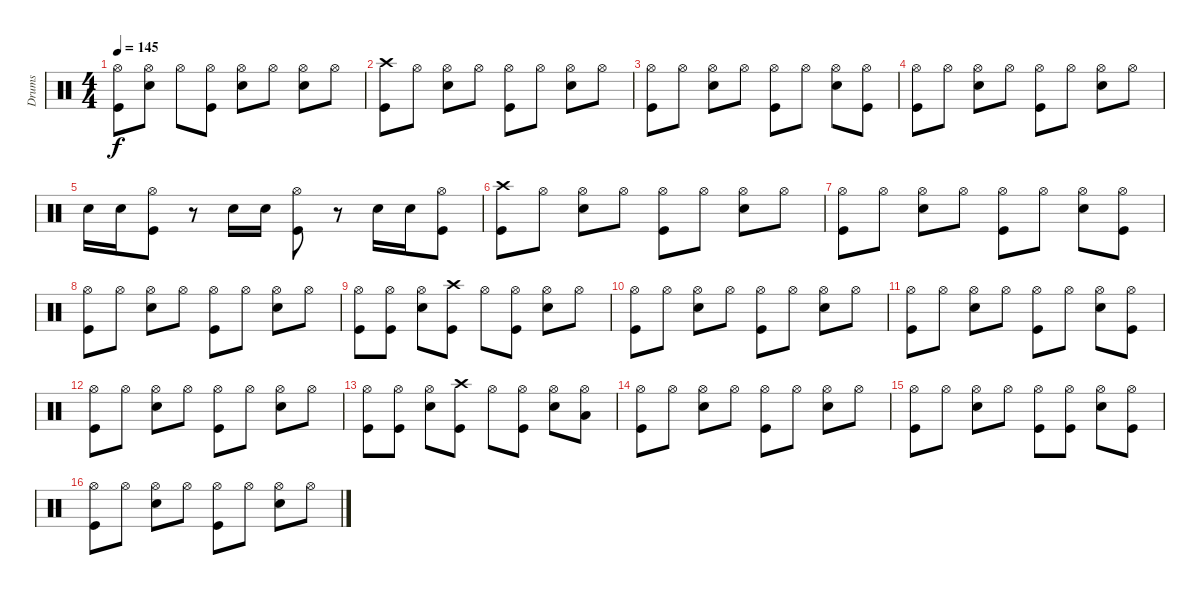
\track ("Drums" "Drums") {instrument percussion}
\staff {score}
\articulation defaults
\ts (4 4)
\tempo 145
\clef neutral
\ks c
("Hi-Hat (open)" "Kick (hit)").8{dy f} ("Hi-Hat (open)" "Snare (hit) 2").8 "Hi-Hat (open)".8 ("Hi-Hat (open)" "Kick (hit)").8 ("Hi-Hat (open)" "Snare (hit) 2").8 "Hi-Hat (open)".8 ("Hi-Hat (open)" "Snare (hit) 2").8 "Hi-Hat (open)".8 |
("Crash high (hit)" "Kick (hit)").8 "Hi-Hat (open)".8 ("Hi-Hat (open)" "Snare (hit) 2").8 "Hi-Hat (open)".8 ("Hi-Hat (open)" "Kick (hit)").8 "Hi-Hat (open)".8 ("Hi-Hat (open)" "Snare (hit) 2").8 "Hi-Hat (open)".8 |
("Hi-Hat (open)" "Kick (hit)").8 "Hi-Hat (open)".8 ("Hi-Hat (open)" "Snare (hit) 2").8 "Hi-Hat (open)".8 ("Hi-Hat (open)" "Kick (hit)").8 "Hi-Hat (open)".8 ("Hi-Hat (open)" "Snare (hit) 2").8 ("Hi-Hat (open)" "Kick (hit)").8 |
("Hi-Hat (open)" "Kick (hit)").8 "Hi-Hat (open)".8 ("Hi-Hat (open)" "Snare (hit) 2").8 "Hi-Hat (open)".8 ("Hi-Hat (open)" "Kick (hit)").8 "Hi-Hat (open)".8 ("Hi-Hat (open)" "Snare (hit) 2").8 "Hi-Hat (open)".8 |
"Snare (hit) 2".16 "Snare (hit) 2".16 ("Hi-Hat (open)" "Kick (hit)").8 r.8 "Snare (hit) 2".16 "Snare (hit) 2".16 ("Hi-Hat (open)" "Kick (hit)").8 r.8 "Snare (hit) 2".16 "Snare (hit) 2".16 ("Hi-Hat (open)" "Kick (hit)").8 |
("Crash high (hit)" "Kick (hit)").8 "Hi-Hat (open)".8 ("Hi-Hat (open)" "Snare (hit) 2").8 "Hi-Hat (open)".8 ("Hi-Hat (open)" "Kick (hit)").8 "Hi-Hat (open)".8 ("Hi-Hat (open)" "Snare (hit) 2").8 "Hi-Hat (open)".8 |
("Hi-Hat (open)" "Kick (hit)").8 "Hi-Hat (open)".8 ("Hi-Hat (open)" "Snare (hit) 2").8 "Hi-Hat (open)".8 ("Hi-Hat (open)" "Kick (hit)").8 "Hi-Hat (open)".8 ("Hi-Hat (open)" "Snare (hit) 2").8 ("Hi-Hat (open)" "Kick (hit)").8 |
("Hi-Hat (open)" "Kick (hit)").8 "Hi-Hat (open)".8 ("Hi-Hat (open)" "Snare (hit) 2").8 "Hi-Hat (open)".8 ("Hi-Hat (open)" "Kick (hit)").8 "Hi-Hat (open)".8 ("Hi-Hat (open)" "Snare (hit) 2").8 "Hi-Hat (open)".8 |
("Hi-Hat (open)" "Kick (hit)").8 ("Hi-Hat (open)" "Kick (hit)").8 ("Hi-Hat (open)" "Snare (hit) 2").8 ("Crash high (hit)" "Kick (hit)").8 "Hi-Hat (open)".8 ("Hi-Hat (open)" "Kick (hit)").8 ("Hi-Hat (open)" "Snare (hit) 2").8 "Hi-Hat (open)".8 |
("Hi-Hat (open)" "Kick (hit)").8 "Hi-Hat (open)".8 ("Hi-Hat (open)" "Snare (hit) 2").8 "Hi-Hat (open)".8 ("Hi-Hat (open)" "Kick (hit)").8 "Hi-Hat (open)".8 ("Hi-Hat (open)" "Snare (hit) 2").8 "Hi-Hat (open)".8 |
("Hi-Hat (open)" "Kick (hit)").8 "Hi-Hat (open)".8 ("Hi-Hat (open)" "Snare (hit) 2").8 "Hi-Hat (open)".8 ("Hi-Hat (open)" "Kick (hit)").8 "Hi-Hat (open)".8 ("Hi-Hat (open)" "Snare (hit) 2").8 ("Hi-Hat (open)" "Kick (hit)").8 |
("Hi-Hat (open)" "Kick (hit)").8 "Hi-Hat (open)".8 ("Hi-Hat (open)" "Snare (hit) 2").8 "Hi-Hat (open)".8 ("Hi-Hat (open)" "Kick (hit)").8 "Hi-Hat (open)".8 ("Hi-Hat (open)" "Snare (hit) 2").8 "Hi-Hat (open)".8 |
("Hi-Hat (open)" "Kick (hit)").8 ("Hi-Hat (open)" "Kick (hit)").8 ("Hi-Hat (open)" "Snare (hit) 2").8 ("Crash high (hit)" "Kick (hit)").8 "Hi-Hat (open)".8 ("Hi-Hat (open)" "Kick (hit)").8 ("Hi-Hat (open)" "Snare (hit) 2").8 ("Hi-Hat (open)" "Low Tom (hit)").8 |
("Hi-Hat (open)" "Kick (hit)").8 "Hi-Hat (open)".8 ("Hi-Hat (open)" "Snare (hit) 2").8 "Hi-Hat (open)".8 ("Hi-Hat (open)" "Kick (hit)").8 "Hi-Hat (open)".8 ("Hi-Hat (open)" "Snare (hit) 2").8 "Hi-Hat (open)".8 |
("Hi-Hat (open)" "Kick (hit)").8 "Hi-Hat (open)".8 ("Hi-Hat (open)" "Snare (hit) 2").8 "Hi-Hat (open)".8 ("Hi-Hat (open)" "Kick (hit)").8 ("Hi-Hat (open)" "Kick (hit)").8 ("Hi-Hat (open)" "Snare (hit) 2").8 ("Hi-Hat (open)" "Kick (hit)").8 |
("Hi-Hat (open)" "Kick (hit)").8 "Hi-Hat (open)".8 ("Hi-Hat (open)" "Snare (hit) 2").8 "Hi-Hat (open)".8 ("Hi-Hat (open)" "Kick (hit)").8 "Hi-Hat (open)".8 ("Hi-Hat (open)" "Snare (hit) 2").8 "Hi-Hat (open)".8
